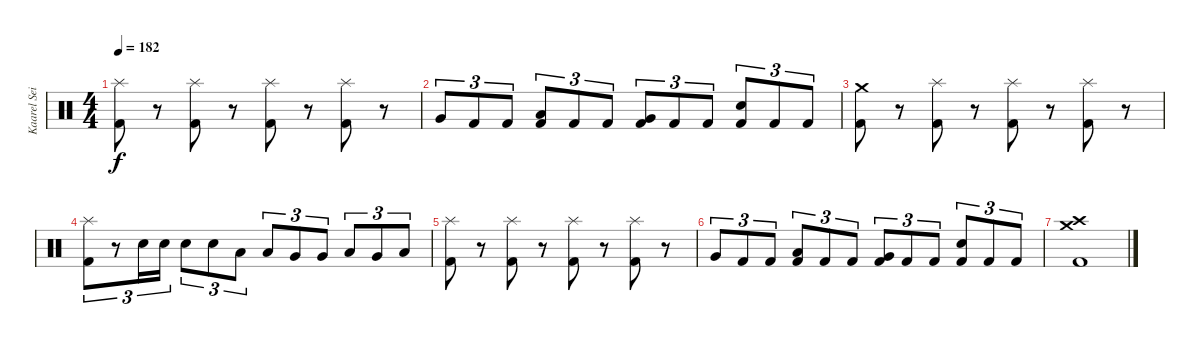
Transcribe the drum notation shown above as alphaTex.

\track ("Kaarel Sein" "Kaarel Sei") {instrument percussion}
\staff {score}
\articulation defaults
\ts (4 4)
\tempo 182
\clef neutral
\ks c
("Splash (hit)" "Kick (hit) 2").8{dy f} r.8 ("Splash (hit)" "Kick (hit) 2").8 r.8 ("Splash (hit)" "Kick (hit) 2").8 r.8 ("Splash (hit)" "Kick (hit) 2").8 r.8 |
"Very Low Tom (hit)".8{tu (3 2)} "Kick (hit) 2".8{tu (3 2)} "Kick (hit) 2".8{tu (3 2)} ("Low Floor Tom (hit)" "Kick (hit) 2").8{tu (3 2)} "Kick (hit) 2".8{tu (3 2)} "Kick (hit) 2".8{tu (3 2)} ("Very Low Tom (hit)" "Kick (hit) 2").8{tu (3 2)} "Kick (hit) 2".8{tu (3 2)} "Kick (hit) 2".8{tu (3 2)} ("Electric Snare (hit)" "Kick (hit) 2").8{tu (3 2)} "Kick (hit) 2".8{tu (3 2)} "Kick (hit) 2".8{tu (3 2)} |
("Crash medium (hit)" "Kick (hit) 2").8 r.8 ("Splash (hit)" "Kick (hit) 2").8 r.8 ("Splash (hit)" "Kick (hit) 2").8 r.8 ("Splash (hit)" "Kick (hit) 2").8 r.8 |
("Splash (hit)" "Kick (hit) 2").8{tu (3 2)} r.8{tu (3 2)} "Electric Snare (hit)".16{tu (3 2)} "Electric Snare (hit)".16{tu (3 2)} "Electric Snare (hit)".8{tu (3 2)} "Electric Snare (hit)".8{tu (3 2)} "Low Tom (hit)".8{tu (3 2)} "Low Tom (hit)".8{tu (3 2)} "Very Low Tom (hit)".8{tu (3 2)} "Very Low Tom (hit)".8{tu (3 2)} "Low Tom (hit)".8{tu (3 2)} "Very Low Tom (hit)".8{tu (3 2)} "Low Floor Tom (hit)".8{tu (3 2)} |
("Splash (hit)" "Kick (hit) 2").8 r.8 ("Splash (hit)" "Kick (hit) 2").8 r.8 ("Splash (hit)" "Kick (hit) 2").8 r.8 ("Splash (hit)" "Kick (hit) 2").8 r.8 |
"Very Low Tom (hit)".8{tu (3 2)} "Kick (hit) 2".8{tu (3 2)} "Kick (hit) 2".8{tu (3 2)} ("Low Floor Tom (hit)" "Kick (hit) 2").8{tu (3 2)} "Kick (hit) 2".8{tu (3 2)} "Kick (hit) 2".8{tu (3 2)} ("Very Low Tom (hit)" "Kick (hit) 2").8{tu (3 2)} "Kick (hit) 2".8{tu (3 2)} "Kick (hit) 2".8{tu (3 2)} ("Electric Snare (hit)" "Kick (hit) 2").8{tu (3 2)} "Kick (hit) 2".8{tu (3 2)} "Kick (hit) 2".8{tu (3 2)} |
("Crash medium (hit)" "Crash high (hit)" "Kick (hit) 2").1
